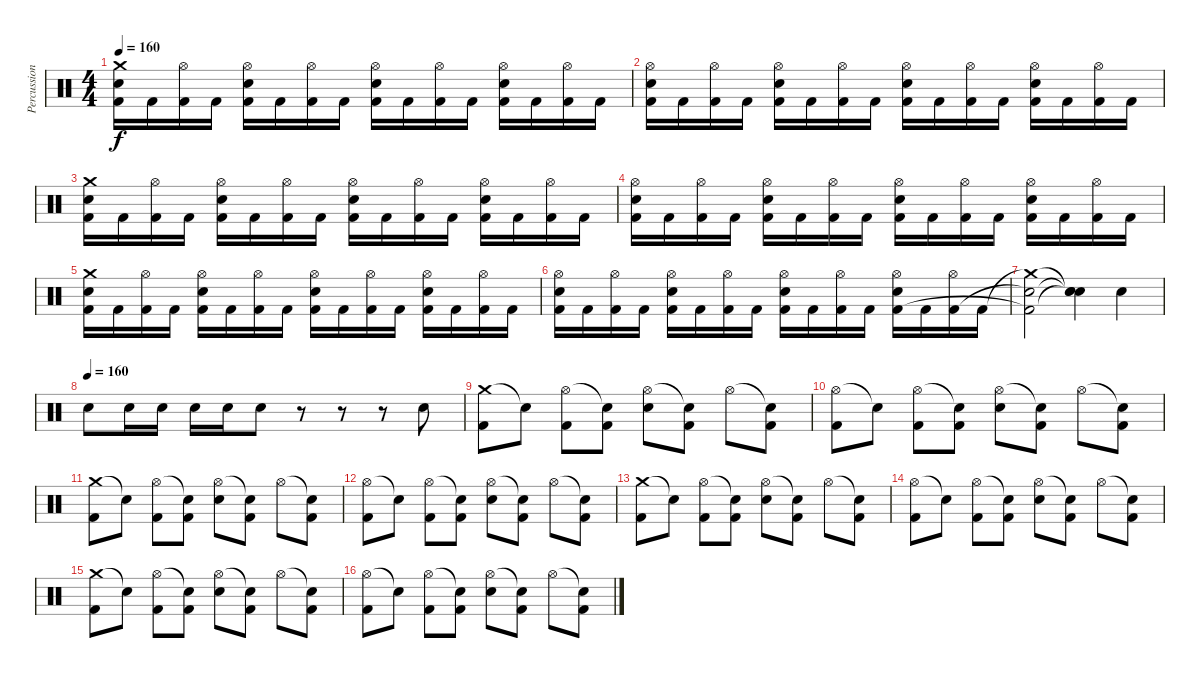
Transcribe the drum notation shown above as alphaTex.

\track ("Percussion" "Percussion") {instrument percussion}
\staff {score}
\articulation defaults
\ts (4 4)
\tempo 160
\clef neutral
\ks c
("Crash medium (hit)" "Electric Snare (hit)" "Kick (hit) 2").16{dy f} "Kick (hit) 2".16 ("Hi-Hat (open)" "Kick (hit) 2").16 "Kick (hit) 2".16 ("Hi-Hat (open)" "Electric Snare (hit)" "Kick (hit) 2").16 "Kick (hit) 2".16 ("Hi-Hat (open)" "Kick (hit) 2").16 "Kick (hit) 2".16 ("Hi-Hat (open)" "Electric Snare (hit)" "Kick (hit) 2").16 "Kick (hit) 2".16 ("Hi-Hat (open)" "Kick (hit) 2").16 "Kick (hit) 2".16 ("Hi-Hat (open)" "Electric Snare (hit)" "Kick (hit) 2").16 "Kick (hit) 2".16 ("Hi-Hat (open)" "Kick (hit) 2").16 "Kick (hit) 2".16 |
("Hi-Hat (open)" "Electric Snare (hit)" "Kick (hit) 2").16 "Kick (hit) 2".16 ("Hi-Hat (open)" "Kick (hit) 2").16 "Kick (hit) 2".16 ("Hi-Hat (open)" "Electric Snare (hit)" "Kick (hit) 2").16 "Kick (hit) 2".16 ("Hi-Hat (open)" "Kick (hit) 2").16 "Kick (hit) 2".16 ("Hi-Hat (open)" "Electric Snare (hit)" "Kick (hit) 2").16 "Kick (hit) 2".16 ("Hi-Hat (open)" "Kick (hit) 2").16 "Kick (hit) 2".16 ("Hi-Hat (open)" "Electric Snare (hit)" "Kick (hit) 2").16 "Kick (hit) 2".16 ("Hi-Hat (open)" "Kick (hit) 2").16 "Kick (hit) 2".16 |
("Crash medium (hit)" "Electric Snare (hit)" "Kick (hit) 2").16 "Kick (hit) 2".16 ("Hi-Hat (open)" "Kick (hit) 2").16 "Kick (hit) 2".16 ("Hi-Hat (open)" "Electric Snare (hit)" "Kick (hit) 2").16 "Kick (hit) 2".16 ("Hi-Hat (open)" "Kick (hit) 2").16 "Kick (hit) 2".16 ("Hi-Hat (open)" "Electric Snare (hit)" "Kick (hit) 2").16 "Kick (hit) 2".16 ("Hi-Hat (open)" "Kick (hit) 2").16 "Kick (hit) 2".16 ("Hi-Hat (open)" "Electric Snare (hit)" "Kick (hit) 2").16 "Kick (hit) 2".16 ("Hi-Hat (open)" "Kick (hit) 2").16 "Kick (hit) 2".16 |
("Hi-Hat (open)" "Electric Snare (hit)" "Kick (hit) 2").16 "Kick (hit) 2".16 ("Hi-Hat (open)" "Kick (hit) 2").16 "Kick (hit) 2".16 ("Hi-Hat (open)" "Electric Snare (hit)" "Kick (hit) 2").16 "Kick (hit) 2".16 ("Hi-Hat (open)" "Kick (hit) 2").16 "Kick (hit) 2".16 ("Hi-Hat (open)" "Electric Snare (hit)" "Kick (hit) 2").16 "Kick (hit) 2".16 ("Hi-Hat (open)" "Kick (hit) 2").16 "Kick (hit) 2".16 ("Hi-Hat (open)" "Electric Snare (hit)" "Kick (hit) 2").16 "Kick (hit) 2".16 ("Hi-Hat (open)" "Kick (hit) 2").16 "Kick (hit) 2".16 |
("Crash medium (hit)" "Electric Snare (hit)" "Kick (hit) 2").16 "Kick (hit) 2".16 ("Hi-Hat (open)" "Kick (hit) 2").16 "Kick (hit) 2".16 ("Hi-Hat (open)" "Electric Snare (hit)" "Kick (hit) 2").16 "Kick (hit) 2".16 ("Hi-Hat (open)" "Kick (hit) 2").16 "Kick (hit) 2".16 ("Hi-Hat (open)" "Electric Snare (hit)" "Kick (hit) 2").16 "Kick (hit) 2".16 ("Hi-Hat (open)" "Kick (hit) 2").16 "Kick (hit) 2".16 ("Hi-Hat (open)" "Electric Snare (hit)" "Kick (hit) 2").16 "Kick (hit) 2".16 ("Hi-Hat (open)" "Kick (hit) 2").16 "Kick (hit) 2".16 |
("Hi-Hat (open)" "Electric Snare (hit)" "Kick (hit) 2").16 "Kick (hit) 2".16 ("Hi-Hat (open)" "Kick (hit) 2").16 "Kick (hit) 2".16 ("Hi-Hat (open)" "Electric Snare (hit)" "Kick (hit) 2").16 "Kick (hit) 2".16 ("Hi-Hat (open)" "Kick (hit) 2").16 "Kick (hit) 2".16 ("Hi-Hat (open)" "Electric Snare (hit)" "Kick (hit) 2").16 "Kick (hit) 2".16 ("Hi-Hat (open)" "Kick (hit) 2").16 "Kick (hit) 2".16 ("Hi-Hat (open)" "Electric Snare (hit)" "Kick (hit) 2").16 "Kick (hit) 2".16 ("Hi-Hat (open)" "Kick (hit) 2").16 "Kick (hit) 2".16 |
("Crash medium (hit)"{t} "Electric Snare (hit)"{t} "Kick (hit) 2"{t}).2 ("Snare (hit)"{t} "Snare (hit)"{t} "Snare (hit)"{t}).4 "Electric Snare (hit)".4 |
\tempo (160)
"Electric Snare (hit)".8 "Electric Snare (hit)".16 "Electric Snare (hit)".16 "Electric Snare (hit)".16 "Electric Snare (hit)".16 "Electric Snare (hit)".8 r.8 r.8 r.8 "Electric Snare (hit)".8 |
("Crash medium (hit)" "Kick (hit) 2").8 "Snare (hit)"{t}.8 ("Hi-Hat (open)" "Kick (hit) 2").8 ("Snare (hit)"{t} "Kick (hit) 2").8 ("Hi-Hat (open)" "Electric Snare (hit)").8 ("Snare (hit)"{t} "Kick (hit) 2").8 "Hi-Hat (open)".8 ("Snare (hit)"{t} "Kick (hit) 2").8 |
("Hi-Hat (open)" "Kick (hit) 2").8 "Snare (hit)"{t}.8 ("Hi-Hat (open)" "Kick (hit) 2").8 ("Snare (hit)"{t} "Kick (hit) 2").8 ("Hi-Hat (open)" "Electric Snare (hit)").8 ("Snare (hit)"{t} "Kick (hit) 2").8 "Hi-Hat (open)".8 ("Snare (hit)"{t} "Kick (hit) 2").8 |
("Crash medium (hit)" "Kick (hit) 2").8 "Snare (hit)"{t}.8 ("Hi-Hat (open)" "Kick (hit) 2").8 ("Snare (hit)"{t} "Kick (hit) 2").8 ("Hi-Hat (open)" "Electric Snare (hit)").8 ("Snare (hit)"{t} "Kick (hit) 2").8 "Hi-Hat (open)".8 ("Snare (hit)"{t} "Kick (hit) 2").8 |
("Hi-Hat (open)" "Kick (hit) 2").8 "Snare (hit)"{t}.8 ("Hi-Hat (open)" "Kick (hit) 2").8 ("Snare (hit)"{t} "Kick (hit) 2").8 ("Hi-Hat (open)" "Electric Snare (hit)").8 ("Snare (hit)"{t} "Kick (hit) 2").8 "Hi-Hat (open)".8 ("Snare (hit)"{t} "Kick (hit) 2").8 |
("Crash medium (hit)" "Kick (hit) 2").8 "Snare (hit)"{t}.8 ("Hi-Hat (open)" "Kick (hit) 2").8 ("Snare (hit)"{t} "Kick (hit) 2").8 ("Hi-Hat (open)" "Electric Snare (hit)").8 ("Snare (hit)"{t} "Kick (hit) 2").8 "Hi-Hat (open)".8 ("Snare (hit)"{t} "Kick (hit) 2").8 |
("Hi-Hat (open)" "Kick (hit) 2").8 "Snare (hit)"{t}.8 ("Hi-Hat (open)" "Kick (hit) 2").8 ("Snare (hit)"{t} "Kick (hit) 2").8 ("Hi-Hat (open)" "Electric Snare (hit)").8 ("Snare (hit)"{t} "Kick (hit) 2").8 "Hi-Hat (open)".8 ("Snare (hit)"{t} "Kick (hit) 2").8 |
("Crash medium (hit)" "Kick (hit) 2").8 "Snare (hit)"{t}.8 ("Hi-Hat (open)" "Kick (hit) 2").8 ("Snare (hit)"{t} "Kick (hit) 2").8 ("Hi-Hat (open)" "Electric Snare (hit)").8 ("Snare (hit)"{t} "Kick (hit) 2").8 "Hi-Hat (open)".8 ("Snare (hit)"{t} "Kick (hit) 2").8 |
("Hi-Hat (open)" "Kick (hit) 2").8 "Snare (hit)"{t}.8 ("Hi-Hat (open)" "Kick (hit) 2").8 ("Snare (hit)"{t} "Kick (hit) 2").8 ("Hi-Hat (open)" "Electric Snare (hit)").8 ("Snare (hit)"{t} "Kick (hit) 2").8 "Hi-Hat (open)".8 ("Snare (hit)"{t} "Kick (hit) 2").8
